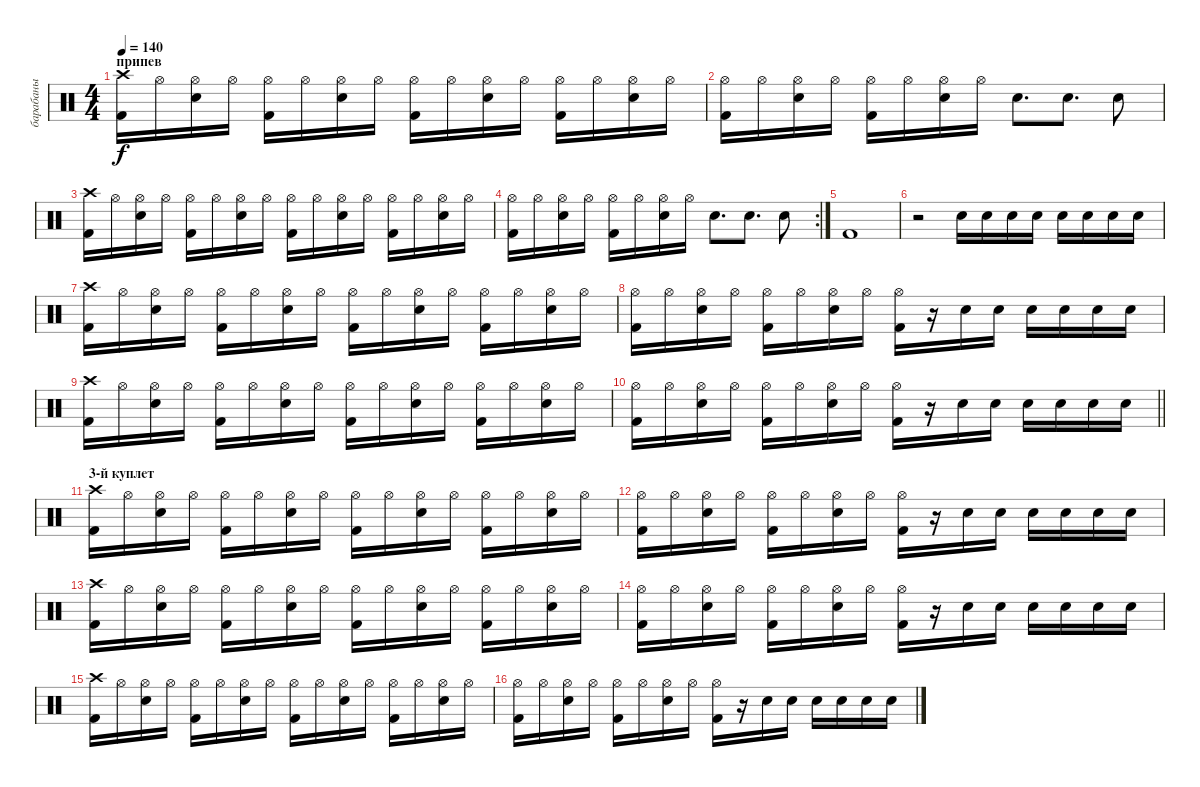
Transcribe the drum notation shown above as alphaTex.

\track ("барабаны" "барабаны") {instrument percussion}
\staff {score}
\articulation defaults
\ts (4 4)
\section ("" "припев")
\tempo 140
\clef neutral
\ks c
("Crash high (hit)" "Kick (hit) 2").16{dy f} "Hi-Hat (open)".16 ("Hi-Hat (open)" "Snare (hit) 2").16 "Hi-Hat (open)".16 ("Hi-Hat (open)" "Kick (hit) 2").16 "Hi-Hat (open)".16 ("Hi-Hat (open)" "Snare (hit) 2").16 "Hi-Hat (open)".16 ("Hi-Hat (open)" "Kick (hit) 2").16 "Hi-Hat (open)".16 ("Hi-Hat (open)" "Snare (hit) 2").16 "Hi-Hat (open)".16 ("Hi-Hat (open)" "Kick (hit) 2").16 "Hi-Hat (open)".16 ("Hi-Hat (open)" "Snare (hit) 2").16 "Hi-Hat (open)".16 |
("Hi-Hat (open)" "Kick (hit) 2").16 "Hi-Hat (open)".16 ("Hi-Hat (open)" "Snare (hit) 2").16 "Hi-Hat (open)".16 ("Hi-Hat (open)" "Kick (hit) 2").16 "Hi-Hat (open)".16 ("Hi-Hat (open)" "Snare (hit) 2").16 "Hi-Hat (open)".16 "Snare (hit) 2".8{d} "Snare (hit) 2".8{d} "Snare (hit) 2".8 |
("Crash high (hit)" "Kick (hit) 2").16 "Hi-Hat (open)".16 ("Hi-Hat (open)" "Snare (hit) 2").16 "Hi-Hat (open)".16 ("Hi-Hat (open)" "Kick (hit) 2").16 "Hi-Hat (open)".16 ("Hi-Hat (open)" "Snare (hit) 2").16 "Hi-Hat (open)".16 ("Hi-Hat (open)" "Kick (hit) 2").16 "Hi-Hat (open)".16 ("Hi-Hat (open)" "Snare (hit) 2").16 "Hi-Hat (open)".16 ("Hi-Hat (open)" "Kick (hit) 2").16 "Hi-Hat (open)".16 ("Hi-Hat (open)" "Snare (hit) 2").16 "Hi-Hat (open)".16 |
\rc 2
("Hi-Hat (open)" "Kick (hit) 2").16 "Hi-Hat (open)".16 ("Hi-Hat (open)" "Snare (hit) 2").16 "Hi-Hat (open)".16 ("Hi-Hat (open)" "Kick (hit) 2").16 "Hi-Hat (open)".16 ("Hi-Hat (open)" "Snare (hit) 2").16 "Hi-Hat (open)".16 "Snare (hit) 2".8{d} "Snare (hit) 2".8{d} "Snare (hit) 2".8 |
"Kick (hit) 2".1 |
r.2 "Snare (hit) 2".16 "Snare (hit) 2".16 "Snare (hit) 2".16 "Snare (hit) 2".16 "Snare (hit) 2".16 "Snare (hit) 2".16 "Snare (hit) 2".16 "Snare (hit) 2".16 |
("Crash high (hit)" "Kick (hit) 2").16 "Hi-Hat (open)".16 ("Hi-Hat (open)" "Snare (hit) 2").16 "Hi-Hat (open)".16 ("Hi-Hat (open)" "Kick (hit) 2").16 "Hi-Hat (open)".16 ("Hi-Hat (open)" "Snare (hit) 2").16 "Hi-Hat (open)".16 ("Hi-Hat (open)" "Kick (hit) 2").16 "Hi-Hat (open)".16 ("Hi-Hat (open)" "Snare (hit) 2").16 "Hi-Hat (open)".16 ("Hi-Hat (open)" "Kick (hit) 2").16 "Hi-Hat (open)".16 ("Hi-Hat (open)" "Snare (hit) 2").16 "Hi-Hat (open)".16 |
("Hi-Hat (open)" "Kick (hit) 2").16 "Hi-Hat (open)".16 ("Hi-Hat (open)" "Snare (hit) 2").16 "Hi-Hat (open)".16 ("Hi-Hat (open)" "Kick (hit) 2").16 "Hi-Hat (open)".16 ("Hi-Hat (open)" "Snare (hit) 2").16 "Hi-Hat (open)".16 ("Hi-Hat (open)" "Kick (hit) 2").16 r.16 "Snare (hit) 2".16 "Snare (hit) 2".16 "Snare (hit) 2".16 "Snare (hit) 2".16 "Snare (hit) 2".16 "Snare (hit) 2".16 |
("Crash high (hit)" "Kick (hit) 2").16 "Hi-Hat (open)".16 ("Hi-Hat (open)" "Snare (hit) 2").16 "Hi-Hat (open)".16 ("Hi-Hat (open)" "Kick (hit) 2").16 "Hi-Hat (open)".16 ("Hi-Hat (open)" "Snare (hit) 2").16 "Hi-Hat (open)".16 ("Hi-Hat (open)" "Kick (hit) 2").16 "Hi-Hat (open)".16 ("Hi-Hat (open)" "Snare (hit) 2").16 "Hi-Hat (open)".16 ("Hi-Hat (open)" "Kick (hit) 2").16 "Hi-Hat (open)".16 ("Hi-Hat (open)" "Snare (hit) 2").16 "Hi-Hat (open)".16 |
\barLineRight lightlight
("Hi-Hat (open)" "Kick (hit) 2").16 "Hi-Hat (open)".16 ("Hi-Hat (open)" "Snare (hit) 2").16 "Hi-Hat (open)".16 ("Hi-Hat (open)" "Kick (hit) 2").16 "Hi-Hat (open)".16 ("Hi-Hat (open)" "Snare (hit) 2").16 "Hi-Hat (open)".16 ("Hi-Hat (open)" "Kick (hit) 2").16 r.16 "Snare (hit) 2".16 "Snare (hit) 2".16 "Snare (hit) 2".16 "Snare (hit) 2".16 "Snare (hit) 2".16 "Snare (hit) 2".16 |
\section ("" "3-й куплет")
("Crash high (hit)" "Kick (hit) 2").16 "Hi-Hat (open)".16 ("Hi-Hat (open)" "Snare (hit) 2").16 "Hi-Hat (open)".16 ("Hi-Hat (open)" "Kick (hit) 2").16 "Hi-Hat (open)".16 ("Hi-Hat (open)" "Snare (hit) 2").16 "Hi-Hat (open)".16 ("Hi-Hat (open)" "Kick (hit) 2").16 "Hi-Hat (open)".16 ("Hi-Hat (open)" "Snare (hit) 2").16 "Hi-Hat (open)".16 ("Hi-Hat (open)" "Kick (hit) 2").16 "Hi-Hat (open)".16 ("Hi-Hat (open)" "Snare (hit) 2").16 "Hi-Hat (open)".16 |
("Hi-Hat (open)" "Kick (hit) 2").16 "Hi-Hat (open)".16 ("Hi-Hat (open)" "Snare (hit) 2").16 "Hi-Hat (open)".16 ("Hi-Hat (open)" "Kick (hit) 2").16 "Hi-Hat (open)".16 ("Hi-Hat (open)" "Snare (hit) 2").16 "Hi-Hat (open)".16 ("Hi-Hat (open)" "Kick (hit) 2").16 r.16 "Snare (hit) 2".16 "Snare (hit) 2".16 "Snare (hit) 2".16 "Snare (hit) 2".16 "Snare (hit) 2".16 "Snare (hit) 2".16 |
("Crash high (hit)" "Kick (hit) 2").16 "Hi-Hat (open)".16 ("Hi-Hat (open)" "Snare (hit) 2").16 "Hi-Hat (open)".16 ("Hi-Hat (open)" "Kick (hit) 2").16 "Hi-Hat (open)".16 ("Hi-Hat (open)" "Snare (hit) 2").16 "Hi-Hat (open)".16 ("Hi-Hat (open)" "Kick (hit) 2").16 "Hi-Hat (open)".16 ("Hi-Hat (open)" "Snare (hit) 2").16 "Hi-Hat (open)".16 ("Hi-Hat (open)" "Kick (hit) 2").16 "Hi-Hat (open)".16 ("Hi-Hat (open)" "Snare (hit) 2").16 "Hi-Hat (open)".16 |
("Hi-Hat (open)" "Kick (hit) 2").16 "Hi-Hat (open)".16 ("Hi-Hat (open)" "Snare (hit) 2").16 "Hi-Hat (open)".16 ("Hi-Hat (open)" "Kick (hit) 2").16 "Hi-Hat (open)".16 ("Hi-Hat (open)" "Snare (hit) 2").16 "Hi-Hat (open)".16 ("Hi-Hat (open)" "Kick (hit) 2").16 r.16 "Snare (hit) 2".16 "Snare (hit) 2".16 "Snare (hit) 2".16 "Snare (hit) 2".16 "Snare (hit) 2".16 "Snare (hit) 2".16 |
("Crash high (hit)" "Kick (hit) 2").16 "Hi-Hat (open)".16 ("Hi-Hat (open)" "Snare (hit) 2").16 "Hi-Hat (open)".16 ("Hi-Hat (open)" "Kick (hit) 2").16 "Hi-Hat (open)".16 ("Hi-Hat (open)" "Snare (hit) 2").16 "Hi-Hat (open)".16 ("Hi-Hat (open)" "Kick (hit) 2").16 "Hi-Hat (open)".16 ("Hi-Hat (open)" "Snare (hit) 2").16 "Hi-Hat (open)".16 ("Hi-Hat (open)" "Kick (hit) 2").16 "Hi-Hat (open)".16 ("Hi-Hat (open)" "Snare (hit) 2").16 "Hi-Hat (open)".16 |
("Hi-Hat (open)" "Kick (hit) 2").16 "Hi-Hat (open)".16 ("Hi-Hat (open)" "Snare (hit) 2").16 "Hi-Hat (open)".16 ("Hi-Hat (open)" "Kick (hit) 2").16 "Hi-Hat (open)".16 ("Hi-Hat (open)" "Snare (hit) 2").16 "Hi-Hat (open)".16 ("Hi-Hat (open)" "Kick (hit) 2").16 r.16 "Snare (hit) 2".16 "Snare (hit) 2".16 "Snare (hit) 2".16 "Snare (hit) 2".16 "Snare (hit) 2".16 "Snare (hit) 2".16
